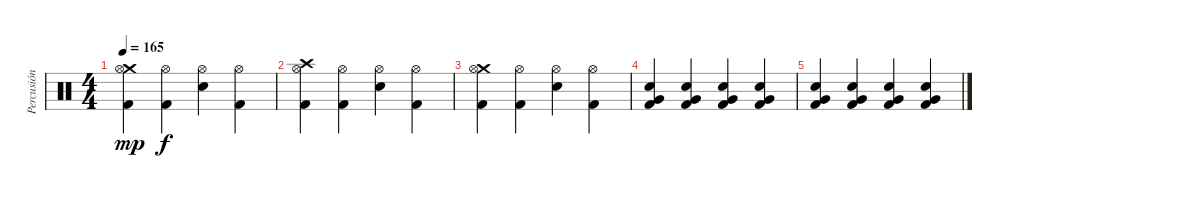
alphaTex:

\track ("Percusión" "Percusión") {instrument percussion}
\staff {score}
\articulation defaults
\ts (4 4)
\tempo 165
\clef neutral
\ks c
("Crash medium (hit)" "Hi-Hat (open)" "Kick (hit) 2").4{dy mp} ("Hi-Hat (open)" "Kick (hit) 2").4{dy f} ("Hi-Hat (open)" "Electric Snare (hit)").4 ("Hi-Hat (open)" "Kick (hit) 2").4 |
("Crash high (hit)" "Hi-Hat (open)" "Kick (hit) 2").4 ("Hi-Hat (open)" "Kick (hit) 2").4 ("Hi-Hat (open)" "Electric Snare (hit)").4 ("Hi-Hat (open)" "Kick (hit) 2").4 |
("Crash medium (hit)" "Hi-Hat (open)" "Kick (hit) 2").4 ("Hi-Hat (open)" "Kick (hit) 2").4 ("Hi-Hat (open)" "Electric Snare (hit)").4 ("Hi-Hat (open)" "Kick (hit) 2").4 |
("Very Low Tom (hit)" "Electric Snare (hit)" "Kick (hit) 2").4 ("Very Low Tom (hit)" "Electric Snare (hit)" "Kick (hit) 2").4 ("Very Low Tom (hit)" "Electric Snare (hit)" "Kick (hit) 2").4 ("Very Low Tom (hit)" "Electric Snare (hit)" "Kick (hit) 2").4 |
("Very Low Tom (hit)" "Electric Snare (hit)" "Kick (hit) 2").4 ("Very Low Tom (hit)" "Electric Snare (hit)" "Kick (hit) 2").4 ("Very Low Tom (hit)" "Electric Snare (hit)" "Kick (hit) 2").4 ("Very Low Tom (hit)" "Electric Snare (hit)" "Kick (hit) 2").4
